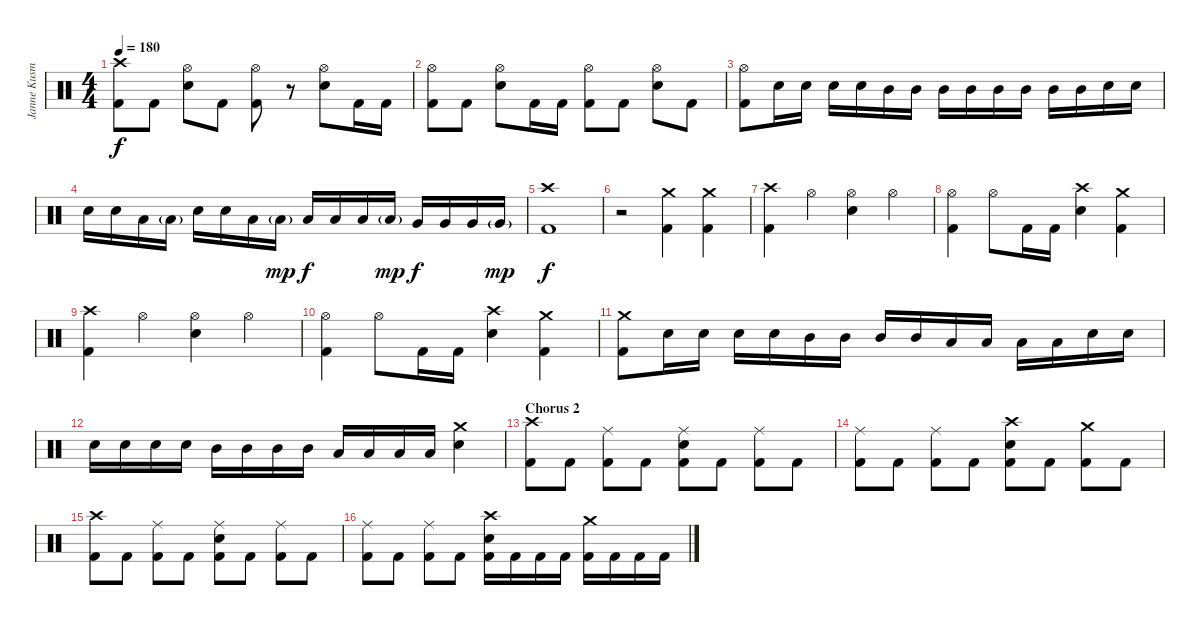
\track ("Janne Kusmin - Drums" "Janne Kusm") {instrument percussion}
\staff {score}
\articulation defaults
\ts (4 4)
\tempo 180
\clef neutral
\ks c
("Crash high (hit)" "Kick (hit) 2").8{dy f} "Kick (hit) 2".8 ("Hi-Hat (open)" "Electric Snare (hit)").8 "Kick (hit) 2".8 ("Hi-Hat (open)" "Kick (hit) 2").8 r.8 ("Hi-Hat (open)" "Electric Snare (hit)").8 "Kick (hit) 2".16 "Kick (hit) 2".16 |
("Hi-Hat (open)" "Kick (hit) 2").8 "Kick (hit) 2".8 ("Hi-Hat (open)" "Electric Snare (hit)").8 "Kick (hit) 2".16 "Kick (hit) 2".16 ("Hi-Hat (open)" "Kick (hit) 2").8 "Kick (hit) 2".8 ("Hi-Hat (open)" "Electric Snare (hit)").8 "Kick (hit) 2".8 |
("Hi-Hat (open)" "Kick (hit) 2").8 "Electric Snare (hit)".16 "Electric Snare (hit)".16 "Electric Snare (hit)".16 "Electric Snare (hit)".16 "Mid Tom (hit)".16 "Mid Tom (hit)".16 "Mid Tom (hit)".16 "Mid Tom (hit)".16 "Mid Tom (hit)".16 "Mid Tom (hit)".16 "Mid Tom (hit)".16 "Mid Tom (hit)".16 "Electric Snare (hit)".16 "Electric Snare (hit)".16 |
"Electric Snare (hit)".16 "Electric Snare (hit)".16 "Low Tom (hit)".16 "Low Tom (hit)"{g}.16 "Electric Snare (hit)".16 "Electric Snare (hit)".16 "Low Tom (hit)".16 "Low Tom (hit)"{g}.16{dy mp} "Low Tom (hit)".16{dy f} "Low Tom (hit)".16 "Low Tom (hit)".16 "Low Tom (hit)"{g}.16{dy mp} "Very Low Tom (hit)".16{dy f} "Very Low Tom (hit)".16 "Very Low Tom (hit)".16 "Very Low Tom (hit)"{g}.16{dy mp} |
\section ("" "")
("Crash high (hit)" "Kick (hit) 2").1{dy f} |
r.2 ("Crash medium (hit)" "Kick (hit) 2").4 ("Crash medium (hit)" "Kick (hit) 2").4 |
("Crash high (hit)" "Kick (hit) 2").4 "Hi-Hat (open)".4 ("Hi-Hat (open)" "Electric Snare (hit)").4 "Hi-Hat (open)".4 |
("Hi-Hat (open)" "Kick (hit) 2").4 "Hi-Hat (open)".8 "Kick (hit) 2".16 "Kick (hit) 2".16 ("Crash high (hit)" "Electric Snare (hit)").4 ("Crash medium (hit)" "Kick (hit) 2").4 |
("Crash high (hit)" "Kick (hit) 2").4 "Hi-Hat (open)".4 ("Hi-Hat (open)" "Electric Snare (hit)").4 "Hi-Hat (open)".4 |
("Hi-Hat (open)" "Kick (hit) 2").4 "Hi-Hat (open)".8 "Kick (hit) 2".16 "Kick (hit) 2".16 ("Crash high (hit)" "Electric Snare (hit)").4 ("Crash medium (hit)" "Kick (hit) 2").4 |
("Crash medium (hit)" "Kick (hit) 2").8 "Electric Snare (hit)".16 "Electric Snare (hit)".16 "Electric Snare (hit)".16 "Electric Snare (hit)".16 "Mid Tom (hit)".16 "Mid Tom (hit)".16 "Mid Tom (hit)".16 "Mid Tom (hit)".16 "Low Tom (hit)".16 "Low Tom (hit)".16 "Low Tom (hit)".16 "Low Tom (hit)".16 "Electric Snare (hit)".16 "Electric Snare (hit)".16 |
"Electric Snare (hit)".16 "Electric Snare (hit)".16 "Electric Snare (hit)".16 "Electric Snare (hit)".16 "Mid Tom (hit)".16 "Mid Tom (hit)".16 "Mid Tom (hit)".16 "Mid Tom (hit)".16 "Low Tom (hit)".16 "Low Tom (hit)".16 "Low Tom (hit)".16 "Low Tom (hit)".16 ("Crash medium (hit)" "Electric Snare (hit)").4 |
\section ("" "Chorus 2")
("Crash high (hit)" "Kick (hit) 2").8 "Kick (hit) 2".8 ("Ride (middle)" "Kick (hit) 2").8 "Kick (hit) 2".8 ("Ride (middle)" "Electric Snare (hit)" "Kick (hit) 2").8 "Kick (hit) 2".8 ("Ride (middle)" "Kick (hit) 2").8 "Kick (hit) 2".8 |
("Ride (middle)" "Kick (hit) 2").8 "Kick (hit) 2".8 ("Ride (middle)" "Kick (hit) 2").8 "Kick (hit) 2".8 ("Crash high (hit)" "Electric Snare (hit)" "Kick (hit) 2").8 "Kick (hit) 2".8 ("Crash medium (hit)" "Kick (hit) 2").8 "Kick (hit) 2".8 |
("Crash high (hit)" "Kick (hit) 2").8 "Kick (hit) 2".8 ("Ride (middle)" "Kick (hit) 2").8 "Kick (hit) 2".8 ("Ride (middle)" "Electric Snare (hit)" "Kick (hit) 2").8 "Kick (hit) 2".8 ("Ride (middle)" "Kick (hit) 2").8 "Kick (hit) 2".8 |
("Ride (middle)" "Kick (hit) 2").8 "Kick (hit) 2".8 ("Ride (middle)" "Kick (hit) 2").8 "Kick (hit) 2".8 ("Crash high (hit)" "Electric Snare (hit)" "Kick (hit) 2").16 "Kick (hit) 2".16 "Kick (hit) 2".16 "Kick (hit) 2".16 ("Crash medium (hit)" "Kick (hit) 2").16 "Kick (hit) 2".16 "Kick (hit) 2".16 "Kick (hit) 2".16
